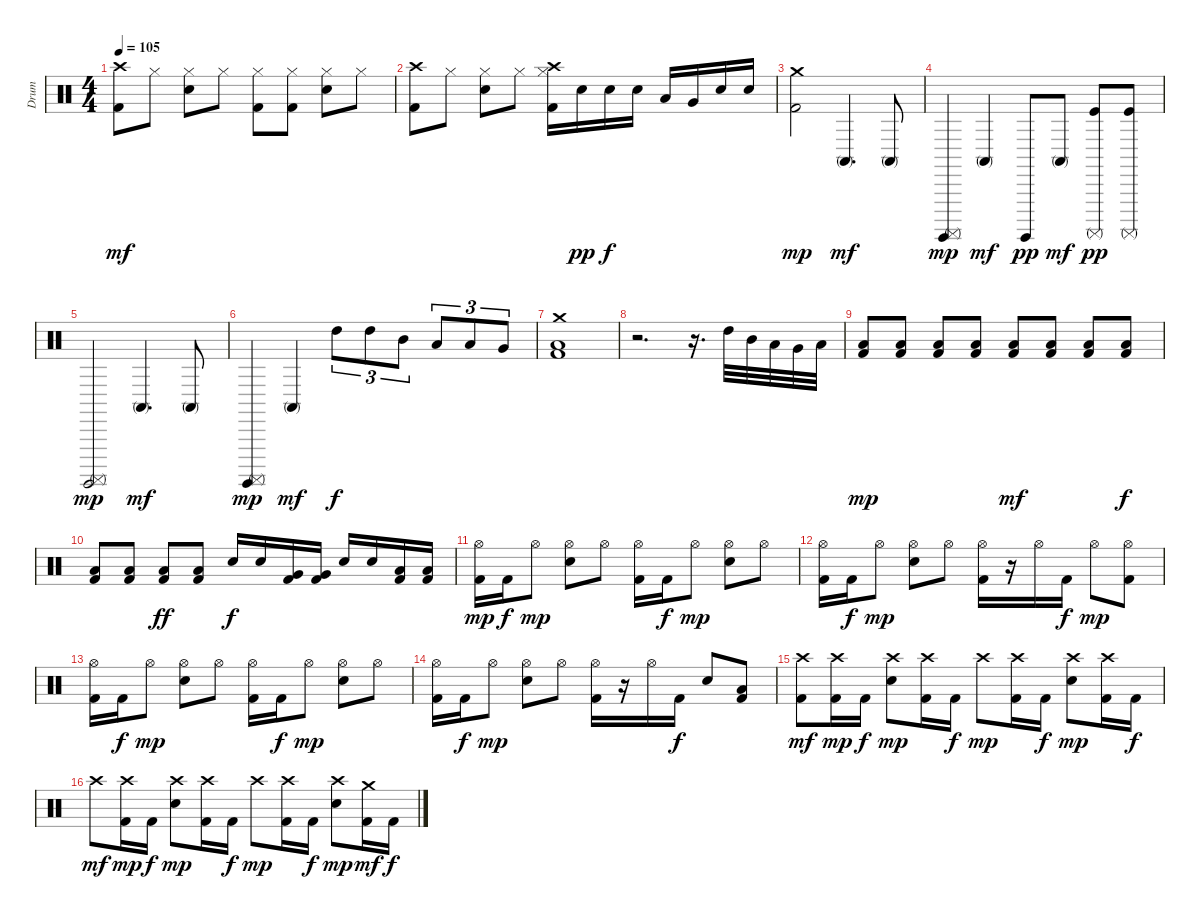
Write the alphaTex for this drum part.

\track ("Drum" "Drum") {instrument percussion}
\staff {score}
\articulation defaults
\ts (4 4)
\tempo 105
\clef neutral
\ks c
("Crash high (hit)" "Kick (hit) 2").8{dy mf} "Hi-Hat (closed)".8 ("Hi-Hat (closed)" "Electric Snare (hit)").8 "Hi-Hat (closed)".8 ("Hi-Hat (closed)" "Kick (hit) 2").8 ("Hi-Hat (closed)" "Kick (hit) 2").8 ("Hi-Hat (closed)" "Electric Snare (hit)").8 "Hi-Hat (closed)".8 |
("Crash high (hit)" "Kick (hit) 2").8 "Hi-Hat (closed)".8 ("Hi-Hat (closed)" "Electric Snare (hit)").8 "Hi-Hat (closed)".8 ("Crash high (hit)" "Hi-Hat (closed)" "Kick (hit) 2").16 "Electric Snare (hit)".16{dy pp} "Electric Snare (hit)".16{dy f} "Electric Snare (hit)".16 "Low Tom (hit)".16 "Very Low Tom (hit)".16 "Electric Snare (hit)".16 "Electric Snare (hit)".16 |
("Crash medium (hit)" "Kick (hit) 2").2{dy mp} "Conga high (mute)".4{d dy mf} "Conga high (mute)".8 |
("Surdo (mute)" "Surdo (hit)").4{dy mp} "Conga high (mute)".4{dy mf} "Surdo (hit)".8{dy pp} "Conga high (mute)".8{dy mf} ("Kick (hit)" "Surdo (mute)").8{dy pp} ("Kick (hit)" "Surdo (mute)").8 |
("Surdo (mute)" "Surdo (hit)").2{dy mp} "Conga high (mute)".4{d dy mf} "Conga high (mute)".8 |
("Surdo (mute)" "Surdo (hit)").4{dy mp} "Conga high (mute)".4{dy mf} "High Tom (hit)".8{tu (3 2) dy f} "High Tom (hit)".8{tu (3 2)} "Mid Tom (hit)".8{tu (3 2)} "Low Tom (hit)".8{tu (3 2)} "Low Tom (hit)".8{tu (3 2)} "Very Low Tom (hit)".8{tu (3 2)} |
("Crash medium (hit)" "Low Floor Tom (hit)" "Kick (hit) 2").1 |
r.2{d} r.16{d} "High Tom (hit)".32 "Mid Tom (hit)".32 "Low Tom (hit)".32 "Very Low Tom (hit)".32 "Low Floor Tom (hit)".32 |
("Low Floor Tom (hit)" "Kick (hit) 2").8{dy mp} ("Low Floor Tom (hit)" "Kick (hit) 2").8 ("Low Floor Tom (hit)" "Kick (hit) 2").8 ("Low Floor Tom (hit)" "Kick (hit) 2").8 ("Low Floor Tom (hit)" "Kick (hit) 2").8{dy mf} ("Low Floor Tom (hit)" "Kick (hit) 2").8 ("Low Floor Tom (hit)" "Kick (hit) 2").8 ("Low Floor Tom (hit)" "Kick (hit) 2").8{dy f} |
("Low Floor Tom (hit)" "Kick (hit) 2").8 ("Low Floor Tom (hit)" "Kick (hit) 2").8 ("Low Floor Tom (hit)" "Kick (hit) 2").8{dy ff} ("Low Floor Tom (hit)" "Kick (hit) 2").8 "Electric Snare (hit)".16{dy f} "Electric Snare (hit)".16 ("Very Low Tom (hit)" "Kick (hit) 2").16 ("Very Low Tom (hit)" "Kick (hit) 2").16 "Electric Snare (hit)".16 "Electric Snare (hit)".16 ("Low Floor Tom (hit)" "Kick (hit) 2").16 ("Low Floor Tom (hit)" "Kick (hit) 2").16 |
("Hi-Hat (open)" "Kick (hit) 2").16{dy mp} "Kick (hit) 2".16{dy f} "Hi-Hat (open)".8{dy mp} ("Hi-Hat (open)" "Electric Snare (hit)").8 "Hi-Hat (open)".8 ("Hi-Hat (open)" "Kick (hit) 2").16 "Kick (hit) 2".16{dy f} "Hi-Hat (open)".8{dy mp} ("Hi-Hat (open)" "Electric Snare (hit)").8 "Hi-Hat (open)".8 |
("Hi-Hat (open)" "Kick (hit) 2").16 "Kick (hit) 2".16{dy f} "Hi-Hat (open)".8{dy mp} ("Hi-Hat (open)" "Electric Snare (hit)").8 "Hi-Hat (open)".8 ("Hi-Hat (open)" "Kick (hit) 2").16 r.16 "Hi-Hat (open)".16 "Kick (hit) 2".16{dy f} "Hi-Hat (open)".8{dy mp} ("Hi-Hat (open)" "Kick (hit) 2").8 |
("Hi-Hat (open)" "Kick (hit) 2").16 "Kick (hit) 2".16{dy f} "Hi-Hat (open)".8{dy mp} ("Hi-Hat (open)" "Electric Snare (hit)").8 "Hi-Hat (open)".8 ("Hi-Hat (open)" "Kick (hit) 2").16 "Kick (hit) 2".16{dy f} "Hi-Hat (open)".8{dy mp} ("Hi-Hat (open)" "Electric Snare (hit)").8 "Hi-Hat (open)".8 |
("Hi-Hat (open)" "Kick (hit) 2").16 "Kick (hit) 2".16{dy f} "Hi-Hat (open)".8{dy mp} ("Hi-Hat (open)" "Electric Snare (hit)").8 "Hi-Hat (open)".8 ("Hi-Hat (open)" "Kick (hit) 2").16 r.16 "Hi-Hat (open)".16 "Kick (hit) 2".16{dy f} "Electric Snare (hit)".8 ("Low Tom (hit)" "Kick (hit) 2").8 |
("Crash high (hit)" "Kick (hit) 2").8{dy mf} ("Crash high (hit)" "Kick (hit) 2").16{dy mp} "Kick (hit) 2".16{dy f} ("Crash high (hit)" "Electric Snare (hit)").8{dy mp} ("Crash high (hit)" "Kick (hit) 2").16 "Kick (hit) 2".16{dy f} "Crash high (hit)".8{dy mp} ("Crash high (hit)" "Kick (hit) 2").16 "Kick (hit) 2".16{dy f} ("Crash high (hit)" "Electric Snare (hit)").8{dy mp} ("Crash high (hit)" "Kick (hit) 2").16 "Kick (hit) 2".16{dy f} |
"Crash high (hit)".8{dy mf} ("Crash high (hit)" "Kick (hit) 2").16{dy mp} "Kick (hit) 2".16{dy f} ("Crash high (hit)" "Electric Snare (hit)").8{dy mp} ("Crash high (hit)" "Kick (hit) 2").16 "Kick (hit) 2".16{dy f} "Crash high (hit)".8{dy mp} ("Crash high (hit)" "Kick (hit) 2").16 "Kick (hit) 2".16{dy f} ("Crash high (hit)" "Electric Snare (hit)").8{dy mp} ("Crash medium (hit)" "Kick (hit) 2").16{dy mf} "Kick (hit) 2".16{dy f}
